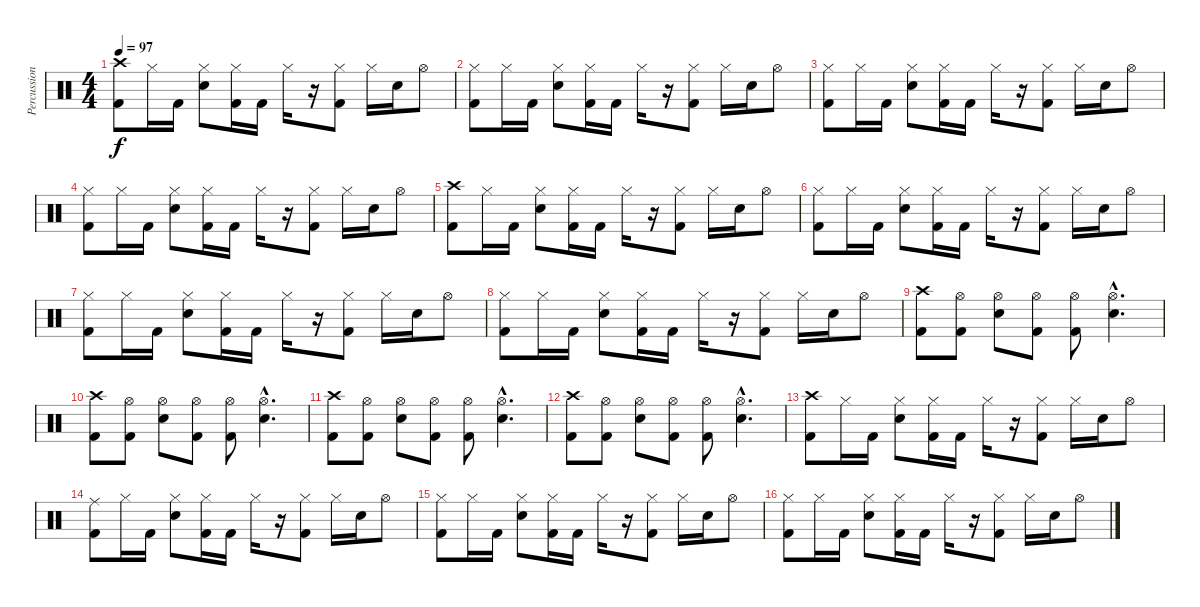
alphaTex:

\track ("Percussion" "Percussion") {instrument percussion}
\staff {score}
\articulation defaults
\ts (4 4)
\tempo 97
\clef neutral
\ks c
("Crash high (hit)" "Kick (hit) 2").8{dy f} "Hi-Hat (closed)".16 "Kick (hit) 2".16 ("Hi-Hat (closed)" "Snare (hit) 2").8 ("Hi-Hat (closed)" "Kick (hit) 2").16 "Kick (hit) 2".16 "Hi-Hat (closed)".16 r.16 ("Hi-Hat (closed)" "Kick (hit) 2").8 "Hi-Hat (closed)".16 "Snare (hit) 2".16 "Hi-Hat (open)".8 |
("Hi-Hat (closed)" "Kick (hit) 2").8 "Hi-Hat (closed)".16 "Kick (hit) 2".16 ("Hi-Hat (closed)" "Snare (hit) 2").8 ("Hi-Hat (closed)" "Kick (hit) 2").16 "Kick (hit) 2".16 "Hi-Hat (closed)".16 r.16 ("Hi-Hat (closed)" "Kick (hit) 2").8 "Hi-Hat (closed)".16 "Snare (hit) 2".16 "Hi-Hat (open)".8 |
("Hi-Hat (closed)" "Kick (hit) 2").8 "Hi-Hat (closed)".16 "Kick (hit) 2".16 ("Hi-Hat (closed)" "Snare (hit) 2").8 ("Hi-Hat (closed)" "Kick (hit) 2").16 "Kick (hit) 2".16 "Hi-Hat (closed)".16 r.16 ("Hi-Hat (closed)" "Kick (hit) 2").8 "Hi-Hat (closed)".16 "Snare (hit) 2".16 "Hi-Hat (open)".8 |
("Hi-Hat (closed)" "Kick (hit) 2").8 "Hi-Hat (closed)".16 "Kick (hit) 2".16 ("Hi-Hat (closed)" "Snare (hit) 2").8 ("Hi-Hat (closed)" "Kick (hit) 2").16 "Kick (hit) 2".16 "Hi-Hat (closed)".16 r.16 ("Hi-Hat (closed)" "Kick (hit) 2").8 "Hi-Hat (closed)".16 "Snare (hit) 2".16 "Hi-Hat (open)".8 |
("Crash high (hit)" "Kick (hit) 2").8 "Hi-Hat (closed)".16 "Kick (hit) 2".16 ("Hi-Hat (closed)" "Snare (hit) 2").8 ("Hi-Hat (closed)" "Kick (hit) 2").16 "Kick (hit) 2".16 "Hi-Hat (closed)".16 r.16 ("Hi-Hat (closed)" "Kick (hit) 2").8 "Hi-Hat (closed)".16 "Snare (hit) 2".16 "Hi-Hat (open)".8 |
("Hi-Hat (closed)" "Kick (hit) 2").8 "Hi-Hat (closed)".16 "Kick (hit) 2".16 ("Hi-Hat (closed)" "Snare (hit) 2").8 ("Hi-Hat (closed)" "Kick (hit) 2").16 "Kick (hit) 2".16 "Hi-Hat (closed)".16 r.16 ("Hi-Hat (closed)" "Kick (hit) 2").8 "Hi-Hat (closed)".16 "Snare (hit) 2".16 "Hi-Hat (open)".8 |
("Hi-Hat (closed)" "Kick (hit) 2").8 "Hi-Hat (closed)".16 "Kick (hit) 2".16 ("Hi-Hat (closed)" "Snare (hit) 2").8 ("Hi-Hat (closed)" "Kick (hit) 2").16 "Kick (hit) 2".16 "Hi-Hat (closed)".16 r.16 ("Hi-Hat (closed)" "Kick (hit) 2").8 "Hi-Hat (closed)".16 "Snare (hit) 2".16 "Hi-Hat (open)".8 |
("Hi-Hat (closed)" "Kick (hit) 2").8 "Hi-Hat (closed)".16 "Kick (hit) 2".16 ("Hi-Hat (closed)" "Snare (hit) 2").8 ("Hi-Hat (closed)" "Kick (hit) 2").16 "Kick (hit) 2".16 "Hi-Hat (closed)".16 r.16 ("Hi-Hat (closed)" "Kick (hit) 2").8 "Hi-Hat (closed)".16 "Snare (hit) 2".16 "Hi-Hat (open)".8 |
("Crash high (hit)" "Kick (hit) 2").8 ("Hi-Hat (open)" "Kick (hit) 2").8 ("Hi-Hat (open)" "Snare (hit) 2").8 ("Hi-Hat (open)" "Kick (hit) 2").8 ("Hi-Hat (open)" "Kick (hit) 2").8 ("Hi-Hat (open)"{hac} "Snare (hit) 2"{hac}).4{d} |
("Crash high (hit)" "Kick (hit) 2").8 ("Hi-Hat (open)" "Kick (hit) 2").8 ("Hi-Hat (open)" "Snare (hit) 2").8 ("Hi-Hat (open)" "Kick (hit) 2").8 ("Hi-Hat (open)" "Kick (hit) 2").8 ("Hi-Hat (open)"{hac} "Snare (hit) 2"{hac}).4{d} |
("Crash high (hit)" "Kick (hit) 2").8 ("Hi-Hat (open)" "Kick (hit) 2").8 ("Hi-Hat (open)" "Snare (hit) 2").8 ("Hi-Hat (open)" "Kick (hit) 2").8 ("Hi-Hat (open)" "Kick (hit) 2").8 ("Hi-Hat (open)"{hac} "Snare (hit) 2"{hac}).4{d} |
("Crash high (hit)" "Kick (hit) 2").8 ("Hi-Hat (open)" "Kick (hit) 2").8 ("Hi-Hat (open)" "Snare (hit) 2").8 ("Hi-Hat (open)" "Kick (hit) 2").8 ("Hi-Hat (open)" "Kick (hit) 2").8 ("Hi-Hat (open)"{hac} "Snare (hit) 2"{hac}).4{d} |
("Crash high (hit)" "Kick (hit) 2").8 "Hi-Hat (closed)".16 "Kick (hit) 2".16 ("Hi-Hat (closed)" "Snare (hit) 2").8 ("Hi-Hat (closed)" "Kick (hit) 2").16 "Kick (hit) 2".16 "Hi-Hat (closed)".16 r.16 ("Hi-Hat (closed)" "Kick (hit) 2").8 "Hi-Hat (closed)".16 "Snare (hit) 2".16 "Hi-Hat (open)".8 |
("Ride (middle)" "Kick (hit) 2").8 "Hi-Hat (closed)".16 "Kick (hit) 2".16 ("Hi-Hat (closed)" "Snare (hit) 2").8 ("Hi-Hat (closed)" "Kick (hit) 2").16 "Kick (hit) 2".16 "Hi-Hat (closed)".16 r.16 ("Hi-Hat (closed)" "Kick (hit) 2").8 "Hi-Hat (closed)".16 "Snare (hit) 2".16 "Hi-Hat (open)".8 |
("Hi-Hat (closed)" "Kick (hit) 2").8 "Hi-Hat (closed)".16 "Kick (hit) 2".16 ("Hi-Hat (closed)" "Snare (hit) 2").8 ("Hi-Hat (closed)" "Kick (hit) 2").16 "Kick (hit) 2".16 "Hi-Hat (closed)".16 r.16 ("Hi-Hat (closed)" "Kick (hit) 2").8 "Hi-Hat (closed)".16 "Snare (hit) 2".16 "Hi-Hat (open)".8 |
("Hi-Hat (closed)" "Kick (hit) 2").8 "Hi-Hat (closed)".16 "Kick (hit) 2".16 ("Hi-Hat (closed)" "Snare (hit) 2").8 ("Hi-Hat (closed)" "Kick (hit) 2").16 "Kick (hit) 2".16 "Hi-Hat (closed)".16 r.16 ("Hi-Hat (closed)" "Kick (hit) 2").8 "Hi-Hat (closed)".16 "Snare (hit) 2".16 "Hi-Hat (open)".8
